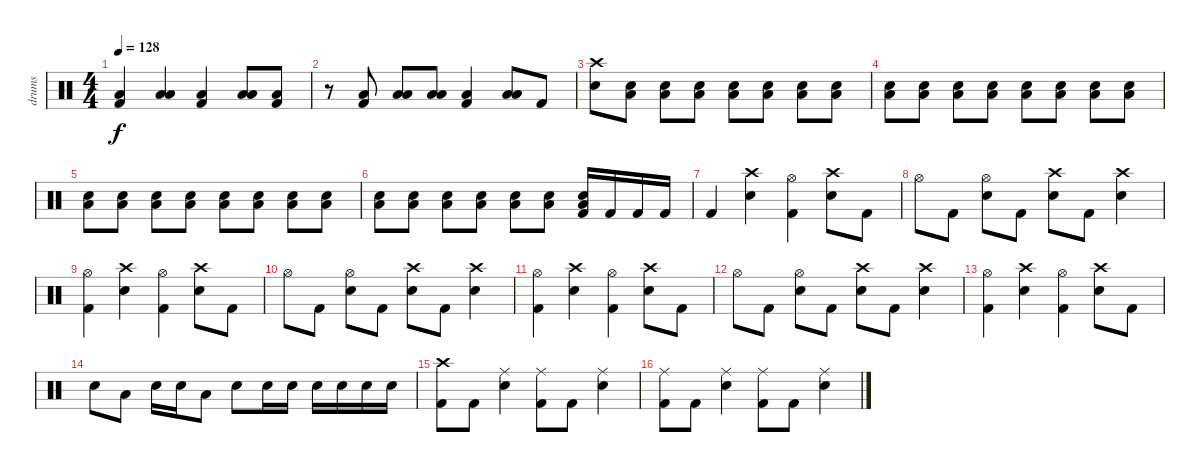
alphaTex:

\track ("drums" "drums") {instrument percussion}
\staff {score}
\articulation defaults
\ts (4 4)
\tempo 128
\clef neutral
\ks c
("Low Floor Tom (hit)" "Kick (hit) 2").4{dy f} ("Low Tom (hit)" "Low Floor Tom (hit)").4 ("Low Floor Tom (hit)" "Kick (hit) 2").4 ("Low Tom (hit)" "Low Floor Tom (hit)").8 ("Low Floor Tom (hit)" "Kick (hit) 2").8 |
r.8 ("Low Floor Tom (hit)" "Kick (hit) 2").8 ("Low Tom (hit)" "Low Floor Tom (hit)").8 ("Low Tom (hit)" "Low Floor Tom (hit)").8 ("Low Floor Tom (hit)" "Kick (hit) 2").4 ("Low Tom (hit)" "Low Floor Tom (hit)").8 "Kick (hit) 2".8 |
("Crash high (hit)" "Electric Snare (hit)").8 ("Electric Snare (hit)" "Low Floor Tom (hit)").8 ("Electric Snare (hit)" "Low Floor Tom (hit)").8 ("Electric Snare (hit)" "Low Floor Tom (hit)").8 ("Electric Snare (hit)" "Low Floor Tom (hit)").8 ("Electric Snare (hit)" "Low Floor Tom (hit)").8 ("Electric Snare (hit)" "Low Floor Tom (hit)").8 ("Electric Snare (hit)" "Low Floor Tom (hit)").8 |
("Electric Snare (hit)" "Low Floor Tom (hit)").8 ("Electric Snare (hit)" "Low Floor Tom (hit)").8 ("Electric Snare (hit)" "Low Floor Tom (hit)").8 ("Electric Snare (hit)" "Low Floor Tom (hit)").8 ("Electric Snare (hit)" "Low Floor Tom (hit)").8 ("Electric Snare (hit)" "Low Floor Tom (hit)").8 ("Electric Snare (hit)" "Low Floor Tom (hit)").8 ("Electric Snare (hit)" "Low Floor Tom (hit)").8 |
("Electric Snare (hit)" "Low Floor Tom (hit)").8 ("Electric Snare (hit)" "Low Floor Tom (hit)").8 ("Electric Snare (hit)" "Low Floor Tom (hit)").8 ("Electric Snare (hit)" "Low Floor Tom (hit)").8 ("Electric Snare (hit)" "Low Floor Tom (hit)").8 ("Electric Snare (hit)" "Low Floor Tom (hit)").8 ("Electric Snare (hit)" "Low Floor Tom (hit)").8 ("Electric Snare (hit)" "Low Floor Tom (hit)").8 |
("Electric Snare (hit)" "Low Floor Tom (hit)").8 ("Electric Snare (hit)" "Low Floor Tom (hit)").8 ("Electric Snare (hit)" "Low Floor Tom (hit)").8 ("Electric Snare (hit)" "Low Floor Tom (hit)").8 ("Electric Snare (hit)" "Low Floor Tom (hit)").8 ("Electric Snare (hit)" "Low Floor Tom (hit)").8 ("Electric Snare (hit)" "Low Floor Tom (hit)" "Kick (hit) 2").16 "Kick (hit) 2".16 "Kick (hit) 2".16 "Kick (hit) 2".16 |
"Kick (hit) 2".4 ("Crash high (hit)" "Electric Snare (hit)").4 ("Hi-Hat (open)" "Kick (hit) 2").4 ("Crash high (hit)" "Electric Snare (hit)").8 "Kick (hit) 2".8 |
"Hi-Hat (open)".8 "Kick (hit) 2".8 ("Hi-Hat (open)" "Electric Snare (hit)").8 "Kick (hit) 2".8 ("Crash high (hit)" "Electric Snare (hit)").8 "Kick (hit) 2".8 ("Crash high (hit)" "Electric Snare (hit)").4 |
("Hi-Hat (open)" "Kick (hit) 2").4 ("Crash high (hit)" "Electric Snare (hit)").4 ("Hi-Hat (open)" "Kick (hit) 2").4 ("Crash high (hit)" "Electric Snare (hit)").8 "Kick (hit) 2".8 |
"Hi-Hat (open)".8 "Kick (hit) 2".8 ("Hi-Hat (open)" "Electric Snare (hit)").8 "Kick (hit) 2".8 ("Crash high (hit)" "Electric Snare (hit)").8 "Kick (hit) 2".8 ("Crash high (hit)" "Electric Snare (hit)").4 |
("Hi-Hat (open)" "Kick (hit) 2").4 ("Crash high (hit)" "Electric Snare (hit)").4 ("Hi-Hat (open)" "Kick (hit) 2").4 ("Crash high (hit)" "Electric Snare (hit)").8 "Kick (hit) 2".8 |
"Hi-Hat (open)".8 "Kick (hit) 2".8 ("Hi-Hat (open)" "Electric Snare (hit)").8 "Kick (hit) 2".8 ("Crash high (hit)" "Electric Snare (hit)").8 "Kick (hit) 2".8 ("Crash high (hit)" "Electric Snare (hit)").4 |
("Hi-Hat (open)" "Kick (hit) 2").4 ("Crash high (hit)" "Electric Snare (hit)").4 ("Hi-Hat (open)" "Kick (hit) 2").4 ("Crash high (hit)" "Electric Snare (hit)").8 "Kick (hit) 2".8 |
"Electric Snare (hit)".8 "Low Tom (hit)".8 "Electric Snare (hit)".16 "Electric Snare (hit)".16 "Low Tom (hit)".8 "Electric Snare (hit)".8 "Electric Snare (hit)".16 "Electric Snare (hit)".16 "Electric Snare (hit)".16 "Electric Snare (hit)".16 "Electric Snare (hit)".16 "Electric Snare (hit)".16 |
("Crash high (hit)" "Kick (hit) 2").8 "Kick (hit) 2".8 ("Ride (middle)" "Electric Snare (hit)").4 ("Ride (middle)" "Kick (hit) 2").8 "Kick (hit) 2".8 ("Ride (middle)" "Electric Snare (hit)").4 |
("Ride (middle)" "Kick (hit) 2").8 "Kick (hit) 2".8 ("Ride (middle)" "Electric Snare (hit)").4 ("Ride (middle)" "Kick (hit) 2").8 "Kick (hit) 2".8 ("Ride (middle)" "Electric Snare (hit)").4
